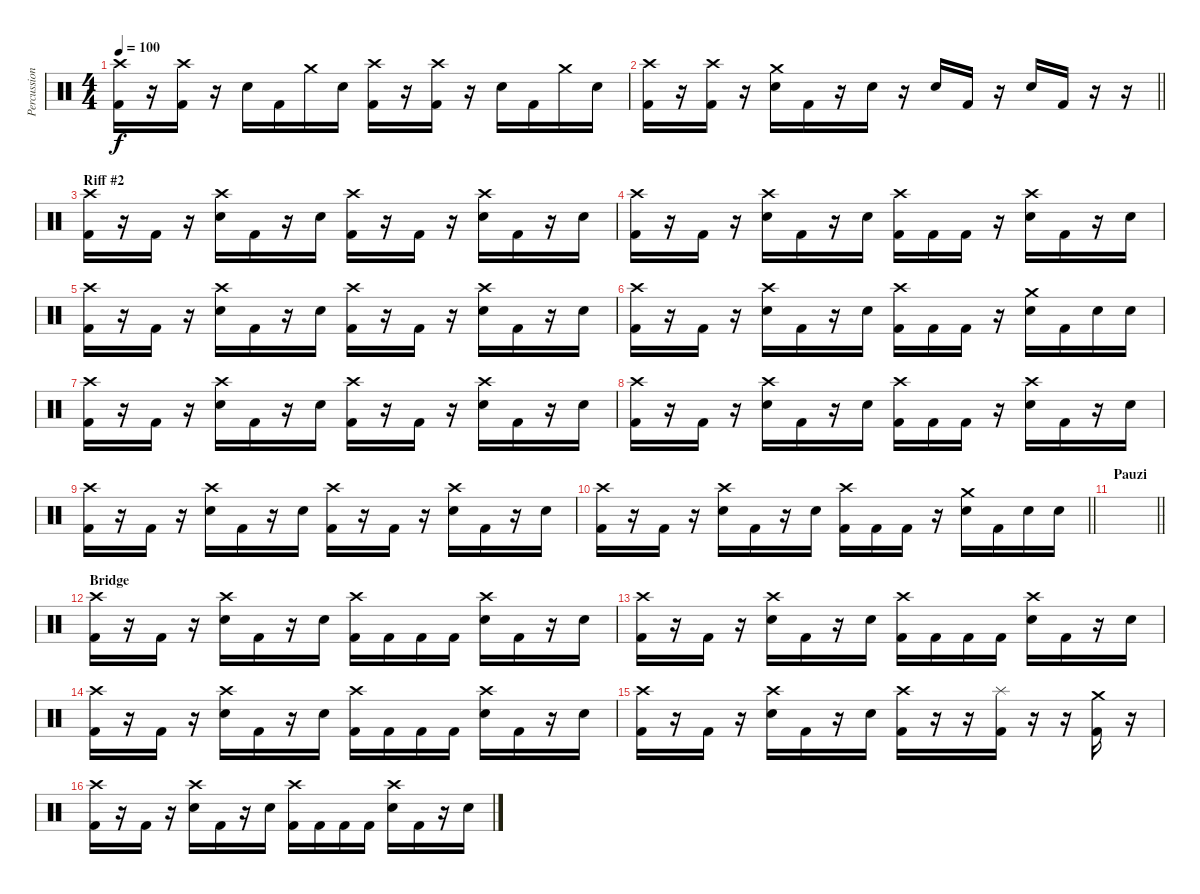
\track ("Percussion" "Percussion") {instrument percussion}
\staff {score}
\articulation defaults
\ts (4 4)
\tempo 100
\clef neutral
\ks c
("Crash high (hit)" "Kick (hit) 2").16{dy f} r.16 ("Crash high (hit)" "Kick (hit) 2").16 r.16 "Electric Snare (hit)".16 "Kick (hit) 2".16 "Crash medium (hit)".16 "Electric Snare (hit)".16 ("Crash high (hit)" "Kick (hit) 2").16 r.16 ("Crash high (hit)" "Kick (hit) 2").16 r.16 "Electric Snare (hit)".16 "Kick (hit) 2".16 "Crash medium (hit)".16 "Electric Snare (hit)".16 |
\barLineRight lightlight
("Crash high (hit)" "Kick (hit) 2").16 r.16 ("Crash high (hit)" "Kick (hit) 2").16 r.16 ("Crash medium (hit)" "Electric Snare (hit)").16 "Kick (hit) 2".16 r.16 "Electric Snare (hit)".16 r.16 "Electric Snare (hit)".16 "Kick (hit) 2".16 r.16 "Electric Snare (hit)".16 "Kick (hit) 2".16 r.16 r.16 |
\section ("" "Riff #2")
("Crash high (hit)" "Kick (hit) 2").16 r.16 "Kick (hit) 2".16 r.16 ("Crash high (hit)" "Electric Snare (hit)").16 "Kick (hit) 2".16 r.16 "Electric Snare (hit)".16 ("Crash high (hit)" "Kick (hit) 2").16 r.16 "Kick (hit) 2".16 r.16 ("Crash high (hit)" "Electric Snare (hit)").16 "Kick (hit) 2".16 r.16 "Electric Snare (hit)".16 |
("Crash high (hit)" "Kick (hit) 2").16 r.16 "Kick (hit) 2".16 r.16 ("Crash high (hit)" "Electric Snare (hit)").16 "Kick (hit) 2".16 r.16 "Electric Snare (hit)".16 ("Crash high (hit)" "Kick (hit) 2").16 "Kick (hit) 2".16 "Kick (hit) 2".16 r.16 ("Crash high (hit)" "Electric Snare (hit)").16 "Kick (hit) 2".16 r.16 "Electric Snare (hit)".16 |
("Crash high (hit)" "Kick (hit) 2").16 r.16 "Kick (hit) 2".16 r.16 ("Crash high (hit)" "Electric Snare (hit)").16 "Kick (hit) 2".16 r.16 "Electric Snare (hit)".16 ("Crash high (hit)" "Kick (hit) 2").16 r.16 "Kick (hit) 2".16 r.16 ("Crash high (hit)" "Electric Snare (hit)").16 "Kick (hit) 2".16 r.16 "Electric Snare (hit)".16 |
("Crash high (hit)" "Kick (hit) 2").16 r.16 "Kick (hit) 2".16 r.16 ("Crash high (hit)" "Electric Snare (hit)").16 "Kick (hit) 2".16 r.16 "Electric Snare (hit)".16 ("Crash high (hit)" "Kick (hit) 2").16 "Kick (hit) 2".16 "Kick (hit) 2".16 r.16 ("Crash medium (hit)" "Electric Snare (hit)").16 "Kick (hit) 2".16 "Electric Snare (hit)".16 "Electric Snare (hit)".16 |
("Crash high (hit)" "Kick (hit) 2").16 r.16 "Kick (hit) 2".16 r.16 ("Crash high (hit)" "Electric Snare (hit)").16 "Kick (hit) 2".16 r.16 "Electric Snare (hit)".16 ("Crash high (hit)" "Kick (hit) 2").16 r.16 "Kick (hit) 2".16 r.16 ("Crash high (hit)" "Electric Snare (hit)").16 "Kick (hit) 2".16 r.16 "Electric Snare (hit)".16 |
("Crash high (hit)" "Kick (hit) 2").16 r.16 "Kick (hit) 2".16 r.16 ("Crash high (hit)" "Electric Snare (hit)").16 "Kick (hit) 2".16 r.16 "Electric Snare (hit)".16 ("Crash high (hit)" "Kick (hit) 2").16 "Kick (hit) 2".16 "Kick (hit) 2".16 r.16 ("Crash high (hit)" "Electric Snare (hit)").16 "Kick (hit) 2".16 r.16 "Electric Snare (hit)".16 |
("Crash high (hit)" "Kick (hit) 2").16 r.16 "Kick (hit) 2".16 r.16 ("Crash high (hit)" "Electric Snare (hit)").16 "Kick (hit) 2".16 r.16 "Electric Snare (hit)".16 ("Crash high (hit)" "Kick (hit) 2").16 r.16 "Kick (hit) 2".16 r.16 ("Crash high (hit)" "Electric Snare (hit)").16 "Kick (hit) 2".16 r.16 "Electric Snare (hit)".16 |
\barLineRight lightlight
("Crash high (hit)" "Kick (hit) 2").16 r.16 "Kick (hit) 2".16 r.16 ("Crash high (hit)" "Electric Snare (hit)").16 "Kick (hit) 2".16 r.16 "Electric Snare (hit)".16 ("Crash high (hit)" "Kick (hit) 2").16 "Kick (hit) 2".16 "Kick (hit) 2".16 r.16 ("Crash medium (hit)" "Electric Snare (hit)").16 "Kick (hit) 2".16 "Electric Snare (hit)".16 "Electric Snare (hit)".16 |
\section ("" "Pauzi")
\barLineRight lightlight
|
\section ("" "Bridge")
("Crash high (hit)" "Kick (hit) 2").16 r.16 "Kick (hit) 2".16 r.16 ("Crash high (hit)" "Electric Snare (hit)").16 "Kick (hit) 2".16 r.16 "Electric Snare (hit)".16 ("Crash high (hit)" "Kick (hit) 2").16 "Kick (hit) 2".16 "Kick (hit) 2".16 "Kick (hit) 2".16 ("Crash high (hit)" "Electric Snare (hit)").16 "Kick (hit) 2".16 r.16 "Electric Snare (hit)".16 |
("Crash high (hit)" "Kick (hit) 2").16 r.16 "Kick (hit) 2".16 r.16 ("Crash high (hit)" "Electric Snare (hit)").16 "Kick (hit) 2".16 r.16 "Electric Snare (hit)".16 ("Crash high (hit)" "Kick (hit) 2").16 "Kick (hit) 2".16 "Kick (hit) 2".16 "Kick (hit) 2".16 ("Crash high (hit)" "Electric Snare (hit)").16 "Kick (hit) 2".16 r.16 "Electric Snare (hit)".16 |
("Crash high (hit)" "Kick (hit) 2").16 r.16 "Kick (hit) 2".16 r.16 ("Crash high (hit)" "Electric Snare (hit)").16 "Kick (hit) 2".16 r.16 "Electric Snare (hit)".16 ("Crash high (hit)" "Kick (hit) 2").16 "Kick (hit) 2".16 "Kick (hit) 2".16 "Kick (hit) 2".16 ("Crash high (hit)" "Electric Snare (hit)").16 "Kick (hit) 2".16 r.16 "Electric Snare (hit)".16 |
("Crash high (hit)" "Kick (hit) 2").16 r.16 "Kick (hit) 2".16 r.16 ("Crash high (hit)" "Electric Snare (hit)").16 "Kick (hit) 2".16 r.16 "Electric Snare (hit)".16 ("Crash high (hit)" "Kick (hit) 2").16 r.16 r.16 ("Splash (hit)" "Kick (hit) 2").16 r.16 r.16 ("Crash medium (hit)" "Kick (hit) 2").16 r.16 |
("Crash high (hit)" "Kick (hit) 2").16 r.16 "Kick (hit) 2".16 r.16 ("Crash high (hit)" "Electric Snare (hit)").16 "Kick (hit) 2".16 r.16 "Electric Snare (hit)".16 ("Crash high (hit)" "Kick (hit) 2").16 "Kick (hit) 2".16 "Kick (hit) 2".16 "Kick (hit) 2".16 ("Crash high (hit)" "Electric Snare (hit)").16 "Kick (hit) 2".16 r.16 "Electric Snare (hit)".16
